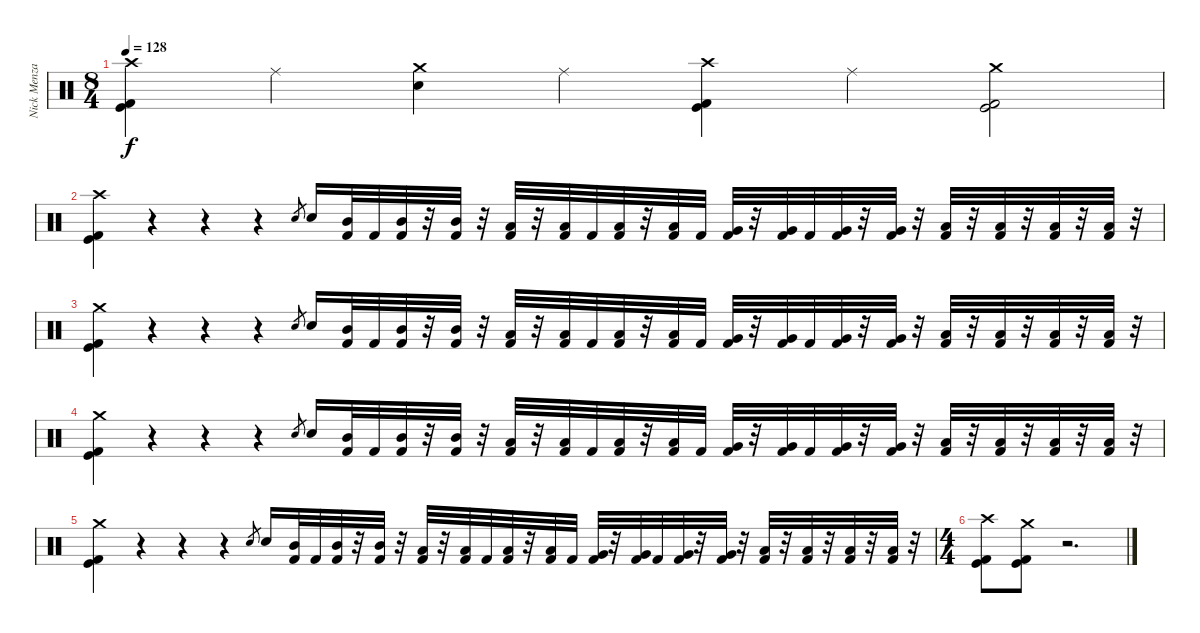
\track ("Nick Menza" "Nick Menza") {instrument percussion}
\staff {score}
\articulation defaults
\ts (8 4)
\tempo 128
\clef neutral
\ks c
("Crash high (hit)" "Kick (hit)" "Kick (hit) 2").4{dy f} "Ride (middle)".4 ("Crash medium (hit)" "Electric Snare (hit)").4 "Ride (middle)".4 ("Crash high (hit)" "Kick (hit)" "Kick (hit) 2").4 "Ride (middle)".4 ("Crash medium (hit)" "Kick (hit)" "Kick (hit) 2").2 |
("Crash high (hit)" "Kick (hit)" "Kick (hit) 2").4 r.4 r.4 r.4 "Electric Snare (hit)".8{gr} "Electric Snare (hit)".16 ("Mid Tom (hit)" "Kick (hit) 2").32 "Kick (hit) 2".32 ("Mid Tom (hit)" "Kick (hit) 2").32 r.32 ("Mid Tom (hit)" "Kick (hit) 2").32 r.32 ("Low Tom (hit)" "Kick (hit) 2").32 r.32 ("Low Tom (hit)" "Kick (hit) 2").32 "Kick (hit) 2".32 ("Low Tom (hit)" "Kick (hit) 2").32 r.32 ("Low Tom (hit)" "Kick (hit) 2").32 "Kick (hit) 2".32 ("Very Low Tom (hit)" "Kick (hit) 2").32 r.32 ("Very Low Tom (hit)" "Kick (hit) 2").32 "Kick (hit) 2".32 ("Very Low Tom (hit)" "Kick (hit) 2").32 r.32 ("Very Low Tom (hit)" "Kick (hit) 2").32 r.32 ("Low Floor Tom (hit)" "Kick (hit) 2").32 r.32 ("Low Floor Tom (hit)" "Kick (hit) 2").32 r.32 ("Low Floor Tom (hit)" "Kick (hit) 2").32 r.32 ("Low Floor Tom (hit)" "Kick (hit) 2").32 r.32 |
("Crash medium (hit)" "Kick (hit)" "Kick (hit) 2").4 r.4 r.4 r.4 "Electric Snare (hit)".8{gr} "Electric Snare (hit)".16 ("Mid Tom (hit)" "Kick (hit) 2").32 "Kick (hit) 2".32 ("Mid Tom (hit)" "Kick (hit) 2").32 r.32 ("Mid Tom (hit)" "Kick (hit) 2").32 r.32 ("Low Tom (hit)" "Kick (hit) 2").32 r.32 ("Low Tom (hit)" "Kick (hit) 2").32 "Kick (hit) 2".32 ("Low Tom (hit)" "Kick (hit) 2").32 r.32 ("Low Tom (hit)" "Kick (hit) 2").32 "Kick (hit) 2".32 ("Very Low Tom (hit)" "Kick (hit) 2").32 r.32 ("Very Low Tom (hit)" "Kick (hit) 2").32 "Kick (hit) 2".32 ("Very Low Tom (hit)" "Kick (hit) 2").32 r.32 ("Very Low Tom (hit)" "Kick (hit) 2").32 r.32 ("Low Floor Tom (hit)" "Kick (hit) 2").32 r.32 ("Low Floor Tom (hit)" "Kick (hit) 2").32 r.32 ("Low Floor Tom (hit)" "Kick (hit) 2").32 r.32 ("Low Floor Tom (hit)" "Kick (hit) 2").32 r.32 |
("Crash medium (hit)" "Kick (hit)" "Kick (hit) 2").4 r.4 r.4 r.4 "Electric Snare (hit)".8{gr} "Electric Snare (hit)".16 ("Mid Tom (hit)" "Kick (hit) 2").32 "Kick (hit) 2".32 ("Mid Tom (hit)" "Kick (hit) 2").32 r.32 ("Mid Tom (hit)" "Kick (hit) 2").32 r.32 ("Low Tom (hit)" "Kick (hit) 2").32 r.32 ("Low Tom (hit)" "Kick (hit) 2").32 "Kick (hit) 2".32 ("Low Tom (hit)" "Kick (hit) 2").32 r.32 ("Low Tom (hit)" "Kick (hit) 2").32 "Kick (hit) 2".32 ("Very Low Tom (hit)" "Kick (hit) 2").32 r.32 ("Very Low Tom (hit)" "Kick (hit) 2").32 "Kick (hit) 2".32 ("Very Low Tom (hit)" "Kick (hit) 2").32 r.32 ("Very Low Tom (hit)" "Kick (hit) 2").32 r.32 ("Low Floor Tom (hit)" "Kick (hit) 2").32 r.32 ("Low Floor Tom (hit)" "Kick (hit) 2").32 r.32 ("Low Floor Tom (hit)" "Kick (hit) 2").32 r.32 ("Low Floor Tom (hit)" "Kick (hit) 2").32 r.32 |
("Crash medium (hit)" "Kick (hit)" "Kick (hit) 2").4 r.4 r.4 r.4 "Electric Snare (hit)".8{gr} "Electric Snare (hit)".16 ("Mid Tom (hit)" "Kick (hit) 2").32 "Kick (hit) 2".32 ("Mid Tom (hit)" "Kick (hit) 2").32 r.32 ("Mid Tom (hit)" "Kick (hit) 2").32 r.32 ("Low Tom (hit)" "Kick (hit) 2").32 r.32 ("Low Tom (hit)" "Kick (hit) 2").32 "Kick (hit) 2".32 ("Low Tom (hit)" "Kick (hit) 2").32 r.32 ("Low Tom (hit)" "Kick (hit) 2").32 "Kick (hit) 2".32 ("Very Low Tom (hit)" "Kick (hit) 2").32 r.32 ("Very Low Tom (hit)" "Kick (hit) 2").32 "Kick (hit) 2".32 ("Very Low Tom (hit)" "Kick (hit) 2").32 r.32 ("Very Low Tom (hit)" "Kick (hit) 2").32 r.32 ("Low Floor Tom (hit)" "Kick (hit) 2").32 r.32 ("Low Floor Tom (hit)" "Kick (hit) 2").32 r.32 ("Low Floor Tom (hit)" "Kick (hit) 2").32 r.32 ("Low Floor Tom (hit)" "Kick (hit) 2").32 r.32 |
\ts (4 4)
("Crash high (hit)" "Kick (hit)" "Kick (hit) 2").8 ("Crash medium (hit)" "Kick (hit)" "Kick (hit) 2").8 r.2{d}
